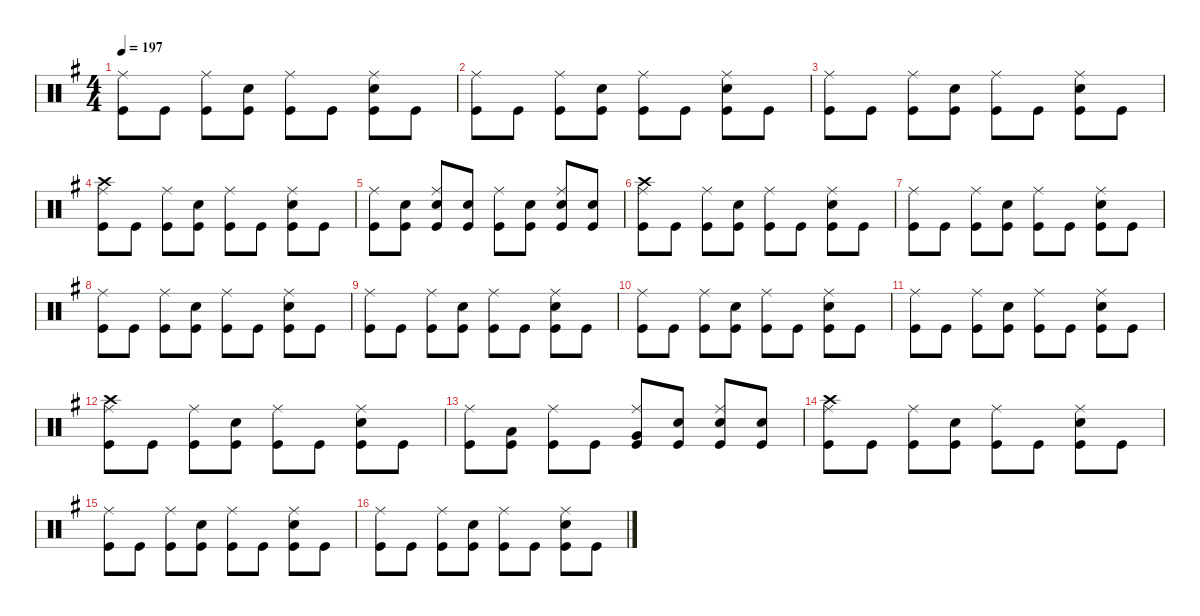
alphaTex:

\defaultSystemsLayout 4
\hideDynamics
\bracketExtendMode nobrackets
\singleTrackTrackNamePolicy hidden
\multiTrackTrackNamePolicy hidden
\firstSystemTrackNameMode fullname
\firstSystemTrackNameOrientation horizontal
\otherSystemsTrackNameOrientation horizontal
\track ("Drums" "drm.") {defaultSystemsLayout 4 instrument percussion}
\staff {score}
\articulation defaults
\ts (4 4)
\tempo 197
\clef neutral
\ks eminor
("Ride (middle)"{acc forcenatural} "Kick (hit)"{acc forcenatural}).8{dy f beam Down} "Kick (hit)"{acc forcenatural}.8{beam Down} ("Ride (middle)"{acc forcenatural} "Kick (hit)"{acc forcenatural}).8{beam Down} ("Snare (hit) 2"{acc forcenatural} "Kick (hit)"{acc forcenatural}).8{beam Down} ("Ride (middle)"{acc forcenatural} "Kick (hit)"{acc forcenatural}).8{beam Down} "Kick (hit)"{acc forcenatural}.8{beam Down} ("Ride (middle)"{acc forcenatural} "Snare (hit) 2"{acc forcenatural} "Kick (hit)"{acc forcenatural}).8{beam Down} "Kick (hit)"{acc forcenatural}.8{beam Down} |
("Ride (middle)"{acc forcenatural} "Kick (hit)"{acc forcenatural}).8{beam Down} "Kick (hit)"{acc forcenatural}.8{beam Down} ("Ride (middle)"{acc forcenatural} "Kick (hit)"{acc forcenatural}).8{beam Down} ("Snare (hit) 2"{acc forcenatural} "Kick (hit)"{acc forcenatural}).8{beam Down} ("Ride (middle)"{acc forcenatural} "Kick (hit)"{acc forcenatural}).8{beam Down} "Kick (hit)"{acc forcenatural}.8{beam Down} ("Ride (middle)"{acc forcenatural} "Snare (hit) 2"{acc forcenatural} "Kick (hit)"{acc forcenatural}).8{beam Down} "Kick (hit)"{acc forcenatural}.8{beam Down} |
("Ride (middle)"{acc forcenatural} "Kick (hit)"{acc forcenatural}).8{beam Down} "Kick (hit)"{acc forcenatural}.8{beam Down} ("Ride (middle)"{acc forcenatural} "Kick (hit)"{acc forcenatural}).8{beam Down} ("Snare (hit) 2"{acc forcenatural} "Kick (hit)"{acc forcenatural}).8{beam Down} ("Ride (middle)"{acc forcenatural} "Kick (hit)"{acc forcenatural}).8{beam Down} "Kick (hit)"{acc forcenatural}.8{beam Down} ("Ride (middle)"{acc forcenatural} "Snare (hit) 2"{acc forcenatural} "Kick (hit)"{acc forcenatural}).8{beam Down} "Kick (hit)"{acc forcenatural}.8{beam Down} |
("Crash high (hit)"{acc forcenatural} "Ride (middle)"{acc forcenatural} "Kick (hit)"{acc forcenatural}).8{beam Down} "Kick (hit)"{acc forcenatural}.8{beam Down} ("Ride (middle)"{acc forcenatural} "Kick (hit)"{acc forcenatural}).8{beam Down} ("Snare (hit) 2"{acc forcenatural} "Kick (hit)"{acc forcenatural}).8{beam Down} ("Ride (middle)"{acc forcenatural} "Kick (hit)"{acc forcenatural}).8{beam Down} "Kick (hit)"{acc forcenatural}.8{beam Down} ("Ride (middle)"{acc forcenatural} "Snare (hit) 2"{acc forcenatural} "Kick (hit)"{acc forcenatural}).8{beam Down} "Kick (hit)"{acc forcenatural}.8{beam Down} |
("Ride (middle)"{acc forcenatural} "Kick (hit)"{acc forcenatural}).8{beam Down} ("Snare (hit) 2"{acc forcenatural} "Kick (hit)"{acc forcenatural}).8{beam Down} ("Ride (middle)"{acc forcenatural} "Snare (hit) 2"{acc forcenatural} "Kick (hit)"{acc forcenatural}).8{beam Up} ("Snare (hit) 2"{acc forcenatural} "Kick (hit)"{acc forcenatural}).8{beam Up} ("Ride (middle)"{acc forcenatural} "Kick (hit)"{acc forcenatural}).8{beam Down} ("Snare (hit) 2"{acc forcenatural} "Kick (hit)"{acc forcenatural}).8{beam Down} ("Ride (middle)"{acc forcenatural} "Snare (hit) 2"{acc forcenatural} "Kick (hit)"{acc forcenatural}).8{beam Up} ("Snare (hit) 2"{acc forcenatural} "Kick (hit)"{acc forcenatural}).8{beam Up} |
("Crash high (hit)"{acc forcenatural} "Ride (middle)"{acc forcenatural} "Kick (hit)"{acc forcenatural}).8{beam Down} "Kick (hit)"{acc forcenatural}.8{beam Down} ("Ride (middle)"{acc forcenatural} "Kick (hit)"{acc forcenatural}).8{beam Down} ("Snare (hit) 2"{acc forcenatural} "Kick (hit)"{acc forcenatural}).8{beam Down} ("Ride (middle)"{acc forcenatural} "Kick (hit)"{acc forcenatural}).8{beam Down} "Kick (hit)"{acc forcenatural}.8{beam Down} ("Ride (middle)"{acc forcenatural} "Snare (hit) 2"{acc forcenatural} "Kick (hit)"{acc forcenatural}).8{beam Down} "Kick (hit)"{acc forcenatural}.8{beam Down} |
("Ride (middle)"{acc forcenatural} "Kick (hit)"{acc forcenatural}).8{beam Down} "Kick (hit)"{acc forcenatural}.8{beam Down} ("Ride (middle)"{acc forcenatural} "Kick (hit)"{acc forcenatural}).8{beam Down} ("Snare (hit) 2"{acc forcenatural} "Kick (hit)"{acc forcenatural}).8{beam Down} ("Ride (middle)"{acc forcenatural} "Kick (hit)"{acc forcenatural}).8{beam Down} "Kick (hit)"{acc forcenatural}.8{beam Down} ("Ride (middle)"{acc forcenatural} "Snare (hit) 2"{acc forcenatural} "Kick (hit)"{acc forcenatural}).8{beam Down} "Kick (hit)"{acc forcenatural}.8{beam Down} |
("Ride (middle)"{acc forcenatural} "Kick (hit)"{acc forcenatural}).8{beam Down} "Kick (hit)"{acc forcenatural}.8{beam Down} ("Ride (middle)"{acc forcenatural} "Kick (hit)"{acc forcenatural}).8{beam Down} ("Snare (hit) 2"{acc forcenatural} "Kick (hit)"{acc forcenatural}).8{beam Down} ("Ride (middle)"{acc forcenatural} "Kick (hit)"{acc forcenatural}).8{beam Down} "Kick (hit)"{acc forcenatural}.8{beam Down} ("Ride (middle)"{acc forcenatural} "Snare (hit) 2"{acc forcenatural} "Kick (hit)"{acc forcenatural}).8{beam Down} "Kick (hit)"{acc forcenatural}.8{beam Down} |
("Ride (middle)"{acc forcenatural} "Kick (hit)"{acc forcenatural}).8{beam Down} "Kick (hit)"{acc forcenatural}.8{beam Down} ("Ride (middle)"{acc forcenatural} "Kick (hit)"{acc forcenatural}).8{beam Down} ("Snare (hit) 2"{acc forcenatural} "Kick (hit)"{acc forcenatural}).8{beam Down} ("Ride (middle)"{acc forcenatural} "Kick (hit)"{acc forcenatural}).8{beam Down} "Kick (hit)"{acc forcenatural}.8{beam Down} ("Ride (middle)"{acc forcenatural} "Snare (hit) 2"{acc forcenatural} "Kick (hit)"{acc forcenatural}).8{beam Down} "Kick (hit)"{acc forcenatural}.8{beam Down} |
("Ride (middle)"{acc forcenatural} "Kick (hit)"{acc forcenatural}).8{beam Down} "Kick (hit)"{acc forcenatural}.8{beam Down} ("Ride (middle)"{acc forcenatural} "Kick (hit)"{acc forcenatural}).8{beam Down} ("Snare (hit) 2"{acc forcenatural} "Kick (hit)"{acc forcenatural}).8{beam Down} ("Ride (middle)"{acc forcenatural} "Kick (hit)"{acc forcenatural}).8{beam Down} "Kick (hit)"{acc forcenatural}.8{beam Down} ("Ride (middle)"{acc forcenatural} "Snare (hit) 2"{acc forcenatural} "Kick (hit)"{acc forcenatural}).8{beam Down} "Kick (hit)"{acc forcenatural}.8{beam Down} |
("Ride (middle)"{acc forcenatural} "Kick (hit)"{acc forcenatural}).8{beam Down} "Kick (hit)"{acc forcenatural}.8{beam Down} ("Ride (middle)"{acc forcenatural} "Kick (hit)"{acc forcenatural}).8{beam Down} ("Snare (hit) 2"{acc forcenatural} "Kick (hit)"{acc forcenatural}).8{beam Down} ("Ride (middle)"{acc forcenatural} "Kick (hit)"{acc forcenatural}).8{beam Down} "Kick (hit)"{acc forcenatural}.8{beam Down} ("Ride (middle)"{acc forcenatural} "Snare (hit) 2"{acc forcenatural} "Kick (hit)"{acc forcenatural}).8{beam Down} "Kick (hit)"{acc forcenatural}.8{beam Down} |
("Crash high (hit)"{acc forcenatural} "Ride (middle)"{acc forcenatural} "Kick (hit)"{acc forcenatural}).8{beam Down} "Kick (hit)"{acc forcenatural}.8{beam Down} ("Ride (middle)"{acc forcenatural} "Kick (hit)"{acc forcenatural}).8{beam Down} ("Snare (hit) 2"{acc forcenatural} "Kick (hit)"{acc forcenatural}).8{beam Down} ("Ride (middle)"{acc forcenatural} "Kick (hit)"{acc forcenatural}).8{beam Down} "Kick (hit)"{acc forcenatural}.8{beam Down} ("Ride (middle)"{acc forcenatural} "Snare (hit) 2"{acc forcenatural} "Kick (hit)"{acc forcenatural}).8{beam Down} "Kick (hit)"{acc forcenatural}.8{beam Down} |
("Ride (middle)"{acc forcenatural} "Kick (hit)"{acc forcenatural}).8{beam Down} ("Low Tom (hit)"{acc forcenatural} "Kick (hit)"{acc forcenatural}).8{beam Down} ("Ride (middle)"{acc forcenatural} "Kick (hit)"{acc forcenatural}).8{beam Down} "Kick (hit)"{acc forcenatural}.8{beam Down} ("Ride (middle)"{acc forcenatural} "Very Low Tom (hit)"{acc forcenatural} "Kick (hit)"{acc forcenatural}).8{beam Up} ("Snare (hit) 2"{acc forcenatural} "Kick (hit)"{acc forcenatural}).8{beam Up} ("Ride (middle)"{acc forcenatural} "Snare (hit) 2"{acc forcenatural} "Kick (hit)"{acc forcenatural}).8{beam Up} ("Snare (hit) 2"{acc forcenatural} "Kick (hit)"{acc forcenatural}).8{beam Up} |
("Crash high (hit)"{acc forcenatural} "Ride (middle)"{acc forcenatural} "Kick (hit)"{acc forcenatural}).8{beam Down} "Kick (hit)"{acc forcenatural}.8{beam Down} ("Ride (middle)"{acc forcenatural} "Kick (hit)"{acc forcenatural}).8{beam Down} ("Snare (hit) 2"{acc forcenatural} "Kick (hit)"{acc forcenatural}).8{beam Down} ("Ride (middle)"{acc forcenatural} "Kick (hit)"{acc forcenatural}).8{beam Down} "Kick (hit)"{acc forcenatural}.8{beam Down} ("Ride (middle)"{acc forcenatural} "Snare (hit) 2"{acc forcenatural} "Kick (hit)"{acc forcenatural}).8{beam Down} "Kick (hit)"{acc forcenatural}.8{beam Down} |
("Ride (middle)"{acc forcenatural} "Kick (hit)"{acc forcenatural}).8{beam Down} "Kick (hit)"{acc forcenatural}.8{beam Down} ("Ride (middle)"{acc forcenatural} "Kick (hit)"{acc forcenatural}).8{beam Down} ("Snare (hit) 2"{acc forcenatural} "Kick (hit)"{acc forcenatural}).8{beam Down} ("Ride (middle)"{acc forcenatural} "Kick (hit)"{acc forcenatural}).8{beam Down} "Kick (hit)"{acc forcenatural}.8{beam Down} ("Ride (middle)"{acc forcenatural} "Snare (hit) 2"{acc forcenatural} "Kick (hit)"{acc forcenatural}).8{beam Down} "Kick (hit)"{acc forcenatural}.8{beam Down} |
("Ride (middle)"{acc forcenatural} "Kick (hit)"{acc forcenatural}).8{beam Down} "Kick (hit)"{acc forcenatural}.8{beam Down} ("Ride (middle)"{acc forcenatural} "Kick (hit)"{acc forcenatural}).8{beam Down} ("Snare (hit) 2"{acc forcenatural} "Kick (hit)"{acc forcenatural}).8{beam Down} ("Ride (middle)"{acc forcenatural} "Kick (hit)"{acc forcenatural}).8{beam Down} "Kick (hit)"{acc forcenatural}.8{beam Down} ("Ride (middle)"{acc forcenatural} "Snare (hit) 2"{acc forcenatural} "Kick (hit)"{acc forcenatural}).8{beam Down} "Kick (hit)"{acc forcenatural}.8{beam Down}
